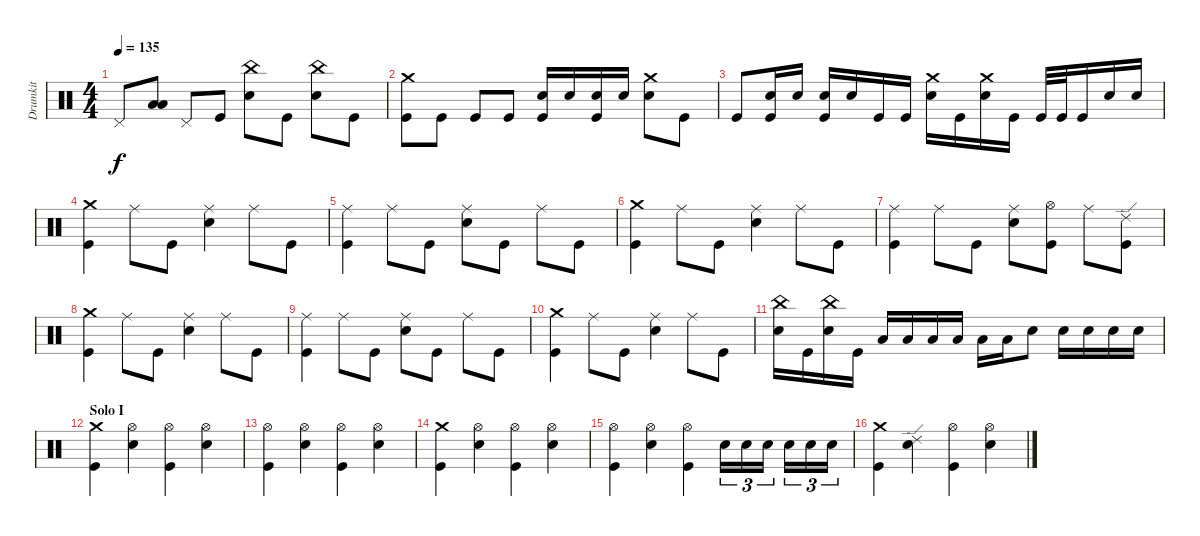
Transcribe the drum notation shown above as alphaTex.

\track ("Drumkit" "Drumkit") {instrument percussion}
\staff {score}
\articulation defaults
\ts (4 4)
\tempo 135
\clef neutral
\ks c "Pedal Hi-Hat (hit)".8{dy f}
("Low Tom (hit)" "Low Floor Tom (hit)").8 "Pedal Hi-Hat (hit)".8 "Kick (hit)".8 ("Snare (hit) 2" "China (hit)").8 "Kick (hit)".8 ("Snare (hit) 2" "China (hit)").8 "Kick (hit)".8 |
("Kick (hit)" "Crash medium (hit)").8 "Kick (hit)".8 "Kick (hit)".8 "Kick (hit)".8 ("Snare (hit) 2" "Kick (hit)").16 "Snare (hit) 2".16 ("Snare (hit) 2" "Kick (hit)").16 "Snare (hit) 2".16 ("Snare (hit) 2" "Crash medium (hit)").8 "Kick (hit)".8 |
"Kick (hit)".8 ("Snare (hit) 2" "Kick (hit)").16 "Snare (hit) 2".16 ("Snare (hit) 2" "Kick (hit)").16 "Snare (hit) 2".16 "Kick (hit)".16 "Kick (hit)".16 ("Snare (hit) 2" "Crash medium (hit)").16 "Kick (hit)".16 ("Snare (hit) 2" "Crash medium (hit)").16 "Kick (hit)".16 "Kick (hit)".32 "Kick (hit)".32 "Kick (hit)".16 "Snare (hit) 2".16 "Snare (hit) 2".16 |
("Kick (hit)" "Crash medium (hit)").4 "Ride (middle)".8 "Kick (hit)".8 ("Snare (hit) 2" "Ride (middle)").4 "Ride (middle)".8 "Kick (hit)".8 |
("Kick (hit)" "Ride (middle)").4 "Ride (middle)".8 "Kick (hit)".8 ("Snare (hit) 2" "Ride (middle)").8 "Kick (hit)".8 "Ride (middle)".8 "Kick (hit)".8 |
("Kick (hit)" "Crash medium (hit)").4 "Ride (middle)".8 "Kick (hit)".8 ("Snare (hit) 2" "Ride (middle)").4 "Ride (middle)".8 "Kick (hit)".8 |
("Kick (hit)" "Ride (middle)").4 "Ride (middle)".8 "Kick (hit)".8 ("Snare (hit) 2" "Ride (middle)").8 ("Kick (hit)" "Hi-Hat (open)").8 "Ride (middle)".8 ("Kick (hit)" "Ride (edge) 2").8 |
("Kick (hit)" "Crash medium (hit)").4 "Ride (middle)".8 "Kick (hit)".8 ("Snare (hit) 2" "Ride (middle)").4 "Ride (middle)".8 "Kick (hit)".8 |
("Kick (hit)" "Ride (middle)").4 "Ride (middle)".8 "Kick (hit)".8 ("Snare (hit) 2" "Ride (middle)").8 "Kick (hit)".8 "Ride (middle)".8 "Kick (hit)".8 |
("Kick (hit)" "Crash medium (hit)").4 "Ride (middle)".8 "Kick (hit)".8 ("Snare (hit) 2" "Ride (middle)").4 "Ride (middle)".8 "Kick (hit)".8 |
("Snare (hit) 2" "China (hit)").16 "Kick (hit)".16 ("Snare (hit) 2" "China (hit)").16 "Kick (hit)".16 "Low Tom (hit)".16 "Low Floor Tom (hit)".16 "Low Tom (hit)".16 "Low Floor Tom (hit)".16 "Low Tom (hit)".16 "Low Floor Tom (hit)".16 "Snare (hit) 2".8 "Snare (hit) 2".16 "Snare (hit) 2".16 "Snare (hit) 2".16 "Snare (hit) 2".16 |
\section ("" "Solo I")
("Kick (hit)" "Crash medium (hit)").4 ("Snare (hit) 2" "Hi-Hat (open)").4 ("Kick (hit)" "Hi-Hat (open)").4 ("Snare (hit) 2" "Hi-Hat (open)").4 |
("Kick (hit)" "Hi-Hat (open)").4 ("Snare (hit) 2" "Hi-Hat (open)").4 ("Kick (hit)" "Hi-Hat (open)").4 ("Snare (hit) 2" "Hi-Hat (open)").4 |
("Kick (hit)" "Crash medium (hit)").4 ("Snare (hit) 2" "Hi-Hat (open)").4 ("Kick (hit)" "Hi-Hat (open)").4 ("Snare (hit) 2" "Hi-Hat (open)").4 |
("Kick (hit)" "Hi-Hat (open)").4 ("Snare (hit) 2" "Hi-Hat (open)").4 ("Kick (hit)" "Hi-Hat (open)").4 "Snare (hit) 2".16{tu (3 2)} "Snare (hit) 2".16{tu (3 2)} "Snare (hit) 2".16{tu (3 2)} "Snare (hit) 2".16{tu (3 2)} "Snare (hit) 2".16{tu (3 2)} "Snare (hit) 2".16{tu (3 2)} |
("Kick (hit)" "Crash medium (hit)").4 ("Snare (hit) 2" "Ride (edge) 2").4 ("Kick (hit)" "Hi-Hat (open)").4 ("Snare (hit) 2" "Hi-Hat (open)").4
